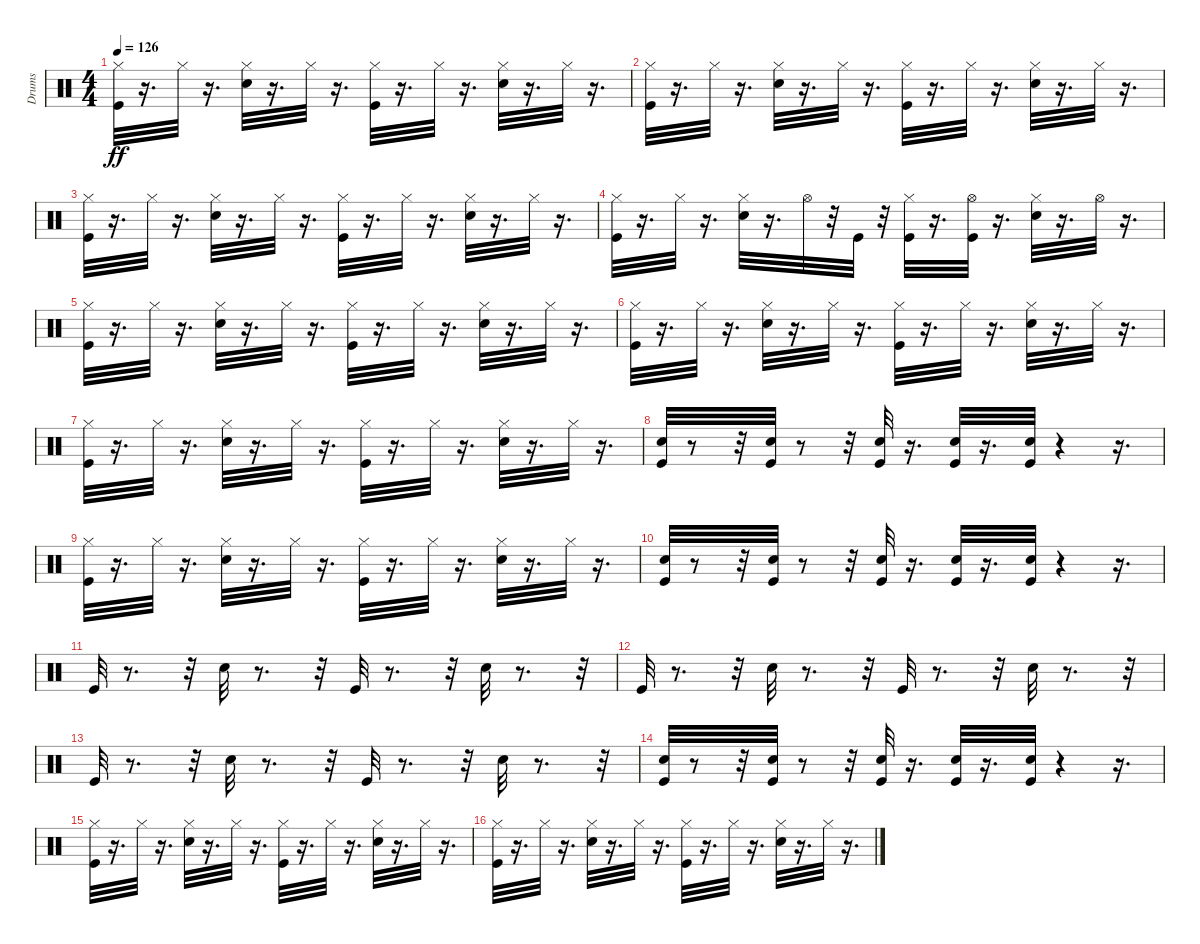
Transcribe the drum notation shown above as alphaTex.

\track ("Drums" "Drums") {instrument percussion}
\staff {score}
\articulation defaults
\ts (4 4)
\tempo 126
\clef neutral
\ks c
("Kick (hit)" "Hi-Hat (closed)").32{dy ff} r.16{d} "Hi-Hat (closed)".32 r.16{d} ("Snare (hit) 2" "Hi-Hat (closed)").32 r.16{d} "Hi-Hat (closed)".32 r.16{d} ("Kick (hit)" "Hi-Hat (closed)").32 r.16{d} "Hi-Hat (closed)".32 r.16{d} ("Snare (hit) 2" "Hi-Hat (closed)").32 r.16{d} "Hi-Hat (closed)".32 r.16{d} |
("Kick (hit)" "Hi-Hat (closed)").32 r.16{d} "Hi-Hat (closed)".32 r.16{d} ("Snare (hit) 2" "Hi-Hat (closed)").32 r.16{d} "Hi-Hat (closed)".32 r.16{d} ("Kick (hit)" "Hi-Hat (closed)").32 r.16{d} "Hi-Hat (closed)".32 r.16{d} ("Snare (hit) 2" "Hi-Hat (closed)").32 r.16{d} "Hi-Hat (closed)".32 r.16{d} |
("Kick (hit)" "Hi-Hat (closed)").32 r.16{d} "Hi-Hat (closed)".32 r.16{d} ("Snare (hit) 2" "Hi-Hat (closed)").32 r.16{d} "Hi-Hat (closed)".32 r.16{d} ("Kick (hit)" "Hi-Hat (closed)").32 r.16{d} "Hi-Hat (closed)".32 r.16{d} ("Snare (hit) 2" "Hi-Hat (closed)").32 r.16{d} "Hi-Hat (closed)".32 r.16{d} |
("Kick (hit)" "Hi-Hat (closed)").32 r.16{d} "Hi-Hat (closed)".32 r.16{d} ("Snare (hit) 2" "Hi-Hat (closed)").32 r.16{d} "Hi-Hat (open)".32 r.32 "Kick (hit)".32 r.32 ("Kick (hit)" "Hi-Hat (closed)").32 r.16{d} ("Kick (hit)" "Hi-Hat (open)").32 r.16{d} ("Snare (hit) 2" "Hi-Hat (closed)").32 r.16{d} "Hi-Hat (open)".32 r.16{d} |
("Kick (hit)" "Hi-Hat (closed)").32 r.16{d} "Hi-Hat (closed)".32 r.16{d} ("Snare (hit) 2" "Hi-Hat (closed)").32 r.16{d} "Hi-Hat (closed)".32 r.16{d} ("Kick (hit)" "Hi-Hat (closed)").32 r.16{d} "Hi-Hat (closed)".32 r.16{d} ("Snare (hit) 2" "Hi-Hat (closed)").32 r.16{d} "Hi-Hat (closed)".32 r.16{d} |
("Kick (hit)" "Hi-Hat (closed)").32 r.16{d} "Hi-Hat (closed)".32 r.16{d} ("Snare (hit) 2" "Hi-Hat (closed)").32 r.16{d} "Hi-Hat (closed)".32 r.16{d} ("Kick (hit)" "Hi-Hat (closed)").32 r.16{d} "Hi-Hat (closed)".32 r.16{d} ("Snare (hit) 2" "Hi-Hat (closed)").32 r.16{d} "Hi-Hat (closed)".32 r.16{d} |
("Kick (hit)" "Hi-Hat (closed)").32 r.16{d} "Hi-Hat (closed)".32 r.16{d} ("Snare (hit) 2" "Hi-Hat (closed)").32 r.16{d} "Hi-Hat (closed)".32 r.16{d} ("Kick (hit)" "Hi-Hat (closed)").32 r.16{d} "Hi-Hat (closed)".32 r.16{d} ("Snare (hit) 2" "Hi-Hat (closed)").32 r.16{d} "Hi-Hat (closed)".32 r.16{d} |
("Kick (hit)" "Snare (hit) 2").32 r.8 r.32 ("Kick (hit)" "Snare (hit) 2").32 r.8 r.32 ("Kick (hit)" "Snare (hit) 2").32 r.16{d} ("Kick (hit)" "Snare (hit) 2").32 r.16{d} ("Kick (hit)" "Snare (hit) 2").32 r.4 r.16{d} |
("Kick (hit)" "Hi-Hat (closed)").32 r.16{d} "Hi-Hat (closed)".32 r.16{d} ("Snare (hit) 2" "Hi-Hat (closed)").32 r.16{d} "Hi-Hat (closed)".32 r.16{d} ("Kick (hit)" "Hi-Hat (closed)").32 r.16{d} "Hi-Hat (closed)".32 r.16{d} ("Snare (hit) 2" "Hi-Hat (closed)").32 r.16{d} "Hi-Hat (closed)".32 r.16{d} |
("Kick (hit)" "Snare (hit) 2").32 r.8 r.32 ("Kick (hit)" "Snare (hit) 2").32 r.8 r.32 ("Kick (hit)" "Snare (hit) 2").32 r.16{d} ("Kick (hit)" "Snare (hit) 2").32 r.16{d} ("Kick (hit)" "Snare (hit) 2").32 r.4 r.16{d} |
"Kick (hit)".32 r.8{d} r.32 "Snare (hit) 2".32 r.8{d} r.32 "Kick (hit)".32 r.8{d} r.32 "Snare (hit) 2".32 r.8{d} r.32 |
"Kick (hit)".32 r.8{d} r.32 "Snare (hit) 2".32 r.8{d} r.32 "Kick (hit)".32 r.8{d} r.32 "Snare (hit) 2".32 r.8{d} r.32 |
"Kick (hit)".32 r.8{d} r.32 "Snare (hit) 2".32 r.8{d} r.32 "Kick (hit)".32 r.8{d} r.32 "Snare (hit) 2".32 r.8{d} r.32 |
("Kick (hit)" "Snare (hit) 2").32 r.8 r.32 ("Kick (hit)" "Snare (hit) 2").32 r.8 r.32 ("Kick (hit)" "Snare (hit) 2").32 r.16{d} ("Kick (hit)" "Snare (hit) 2").32 r.16{d} ("Kick (hit)" "Snare (hit) 2").32 r.4 r.16{d} |
("Kick (hit)" "Hi-Hat (closed)").32 r.16{d} "Hi-Hat (closed)".32 r.16{d} ("Snare (hit) 2" "Hi-Hat (closed)").32 r.16{d} "Hi-Hat (closed)".32 r.16{d} ("Kick (hit)" "Hi-Hat (closed)").32 r.16{d} "Hi-Hat (closed)".32 r.16{d} ("Snare (hit) 2" "Hi-Hat (closed)").32 r.16{d} "Hi-Hat (closed)".32 r.16{d} |
("Kick (hit)" "Hi-Hat (closed)").32 r.16{d} "Hi-Hat (closed)".32 r.16{d} ("Snare (hit) 2" "Hi-Hat (closed)").32 r.16{d} "Hi-Hat (closed)".32 r.16{d} ("Kick (hit)" "Hi-Hat (closed)").32 r.16{d} "Hi-Hat (closed)".32 r.16{d} ("Snare (hit) 2" "Hi-Hat (closed)").32 r.16{d} "Hi-Hat (closed)".32 r.16{d}
